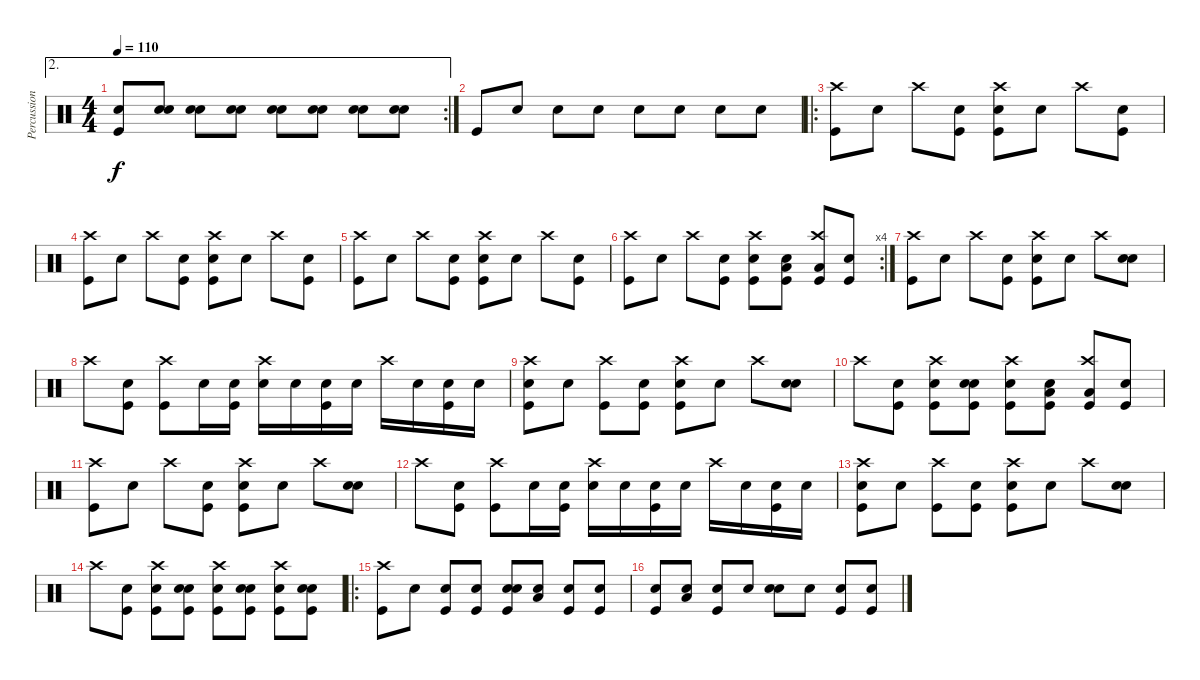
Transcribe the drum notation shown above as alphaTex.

\track ("Percussion" "Percussion") {instrument percussion}
\staff {score}
\articulation defaults
\ae 2
\rc 2
\ts (4 4)
\tempo 110
\clef neutral
\ks c
("Snare (hit)" "Kick (hit)").8{dy f} ("Snare (hit)" "Snare (hit) 2").8 ("Snare (hit)" "Snare (hit) 2").8 ("Snare (hit)" "Snare (hit) 2").8 ("Snare (hit)" "Snare (hit) 2").8 ("Snare (hit)" "Snare (hit) 2").8 ("Snare (hit)" "Snare (hit) 2").8 ("Snare (hit)" "Snare (hit) 2").8 |
"Kick (hit)".8 "Snare (hit) 2".8 "Snare (hit) 2".8 "Snare (hit) 2".8 "Snare (hit) 2".8 "Snare (hit) 2".8 "Snare (hit) 2".8 "Snare (hit) 2".8 |
\ro
("Crash high (hit)" "Kick (hit)").8 "Snare (hit)".8 "Crash high (hit)".8 ("Snare (hit)" "Kick (hit)").8 ("Crash high (hit)" "Snare (hit) 2" "Kick (hit)").8 "Snare (hit)".8 "Crash high (hit)".8 ("Snare (hit)" "Kick (hit)").8 |
("Crash high (hit)" "Kick (hit)").8 "Snare (hit)".8 "Crash high (hit)".8 ("Snare (hit)" "Kick (hit)").8 ("Crash high (hit)" "Snare (hit) 2" "Kick (hit)").8 "Snare (hit)".8 "Crash high (hit)".8 ("Snare (hit)" "Kick (hit)").8 |
("Crash high (hit)" "Kick (hit)").8 "Snare (hit)".8 "Crash high (hit)".8 ("Snare (hit)" "Kick (hit)").8 ("Crash high (hit)" "Snare (hit) 2" "Kick (hit)").8 "Snare (hit)".8 "Crash high (hit)".8 ("Snare (hit)" "Kick (hit)").8 |
\rc 4
("Crash high (hit)" "Kick (hit)").8 "Snare (hit)".8 "Crash high (hit)".8 ("Snare (hit)" "Kick (hit)").8 ("Crash high (hit)" "Snare (hit) 2" "Kick (hit)").8 ("Snare (hit)" "Low Tom (hit)" "Kick (hit)").8 ("Crash high (hit)" "Low Tom (hit)" "Kick (hit)").8 ("Snare (hit)" "Kick (hit)").8 |
("Crash high (hit)" "Kick (hit)").8 "Snare (hit)".8 "Crash high (hit)".8 ("Snare (hit)" "Kick (hit)").8 ("Crash high (hit)" "Snare (hit) 2" "Kick (hit)").8 "Snare (hit)".8 "Crash high (hit)".8 ("Snare (hit)" "Snare (hit) 2").8 |
"Crash high (hit)".8 ("Snare (hit)" "Kick (hit)").8 ("Crash high (hit)" "Kick (hit)").8 "Snare (hit)".16 ("Snare (hit)" "Kick (hit)").16 ("Crash high (hit)" "Snare (hit) 2").16 "Snare (hit)".16 ("Snare (hit)" "Kick (hit)").16 "Snare (hit)".16 "Crash high (hit)".16 "Snare (hit)".16 ("Snare (hit)" "Kick (hit)").16 "Snare (hit)".16 |
("Crash high (hit)" "Snare (hit) 2" "Kick (hit)").8 "Snare (hit)".8 ("Crash high (hit)" "Kick (hit)").8 ("Snare (hit)" "Kick (hit)").8 ("Crash high (hit)" "Snare (hit) 2" "Kick (hit)").8 "Snare (hit)".8 "Crash high (hit)".8 ("Snare (hit)" "Snare (hit) 2").8 |
"Crash high (hit)".8 ("Snare (hit)" "Kick (hit)").8 ("Crash high (hit)" "Snare (hit) 2" "Kick (hit)").8 ("Snare (hit)" "Snare (hit) 2" "Kick (hit)").8 ("Crash high (hit)" "Snare (hit) 2" "Kick (hit)").8 ("Snare (hit)" "Low Tom (hit)" "Kick (hit)").8 ("Crash high (hit)" "Low Tom (hit)" "Kick (hit)").8 ("Snare (hit)" "Kick (hit)").8 |
("Crash high (hit)" "Kick (hit)").8 "Snare (hit)".8 "Crash high (hit)".8 ("Snare (hit)" "Kick (hit)").8 ("Crash high (hit)" "Snare (hit) 2" "Kick (hit)").8 "Snare (hit)".8 "Crash high (hit)".8 ("Snare (hit)" "Snare (hit) 2").8 |
"Crash high (hit)".8 ("Snare (hit)" "Kick (hit)").8 ("Crash high (hit)" "Kick (hit)").8 "Snare (hit)".16 ("Snare (hit)" "Kick (hit)").16 ("Crash high (hit)" "Snare (hit) 2").16 "Snare (hit)".16 ("Snare (hit)" "Kick (hit)").16 "Snare (hit)".16 "Crash high (hit)".16 "Snare (hit)".16 ("Snare (hit)" "Kick (hit)").16 "Snare (hit)".16 |
("Crash high (hit)" "Snare (hit) 2" "Kick (hit)").8 "Snare (hit)".8 ("Crash high (hit)" "Kick (hit)").8 ("Snare (hit)" "Kick (hit)").8 ("Crash high (hit)" "Snare (hit) 2" "Kick (hit)").8 "Snare (hit)".8 "Crash high (hit)".8 ("Snare (hit)" "Snare (hit) 2").8 |
"Crash high (hit)".8 ("Snare (hit)" "Kick (hit)").8 ("Crash high (hit)" "Snare (hit) 2" "Kick (hit)").8 ("Snare (hit)" "Snare (hit) 2" "Kick (hit)").8 ("Crash high (hit)" "Snare (hit) 2" "Kick (hit)").8 ("Snare (hit)" "Snare (hit) 2" "Kick (hit)").8 ("Crash high (hit)" "Snare (hit) 2" "Kick (hit)").8 ("Snare (hit)" "Snare (hit) 2" "Kick (hit)").8 |
\ro
("Crash high (hit)" "Kick (hit)").8 "Snare (hit)".8 ("Snare (hit)" "Kick (hit)").8 ("Snare (hit)" "Kick (hit)").8 ("Snare (hit)" "Snare (hit) 2" "Kick (hit)").8 ("Snare (hit)" "Low Tom (hit)").8 ("Snare (hit)" "Kick (hit)").8 ("Snare (hit)" "Kick (hit)").8 |
("Snare (hit)" "Kick (hit)").8 ("Snare (hit)" "Low Tom (hit)").8 ("Snare (hit)" "Kick (hit)").8 "Snare (hit)".8 ("Snare (hit)" "Snare (hit) 2").8 "Snare (hit)".8 ("Snare (hit)" "Kick (hit)").8 ("Snare (hit)" "Kick (hit)").8
